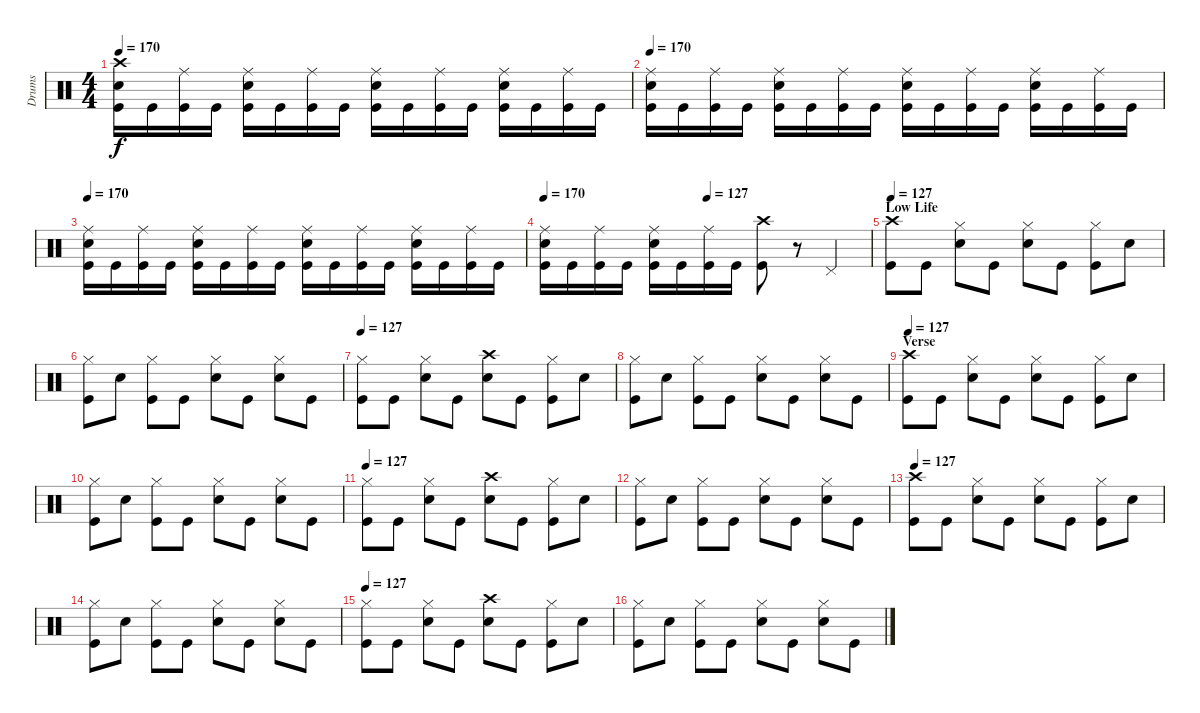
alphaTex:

\track ("Drums" "Drums") {instrument percussion}
\staff {score}
\articulation defaults
\ts (4 4)
\tempo 170
\clef neutral
\ks c
("Crash high (hit)" "Snare (hit) 2" "Kick (hit)").16{dy f} "Kick (hit)".16 ("Ride (middle)" "Kick (hit)").16 "Kick (hit)".16 ("Ride (middle)" "Snare (hit) 2" "Kick (hit)").16 "Kick (hit)".16 ("Ride (middle)" "Kick (hit)").16 "Kick (hit)".16 ("Ride (middle)" "Snare (hit) 2" "Kick (hit)").16 "Kick (hit)".16 ("Ride (middle)" "Kick (hit)").16 "Kick (hit)".16 ("Ride (middle)" "Snare (hit) 2" "Kick (hit)").16 "Kick (hit)".16 ("Ride (middle)" "Kick (hit)").16 "Kick (hit)".16 |
\tempo 170
("Ride (middle)" "Snare (hit) 2" "Kick (hit)").16 "Kick (hit)".16 ("Ride (middle)" "Kick (hit)").16 "Kick (hit)".16 ("Ride (middle)" "Snare (hit) 2" "Kick (hit)").16 "Kick (hit)".16 ("Ride (middle)" "Kick (hit)").16 "Kick (hit)".16 ("Ride (middle)" "Snare (hit) 2" "Kick (hit)").16 "Kick (hit)".16 ("Ride (middle)" "Kick (hit)").16 "Kick (hit)".16 ("Ride (middle)" "Snare (hit) 2" "Kick (hit)").16 "Kick (hit)".16 ("Ride (middle)" "Kick (hit)").16 "Kick (hit)".16 |
\tempo 170
("Ride (middle)" "Snare (hit) 2" "Kick (hit)").16 "Kick (hit)".16 ("Ride (middle)" "Kick (hit)").16 "Kick (hit)".16 ("Ride (middle)" "Snare (hit) 2" "Kick (hit)").16 "Kick (hit)".16 ("Ride (middle)" "Kick (hit)").16 "Kick (hit)".16 ("Ride (middle)" "Snare (hit) 2" "Kick (hit)").16 "Kick (hit)".16 ("Ride (middle)" "Kick (hit)").16 "Kick (hit)".16 ("Ride (middle)" "Snare (hit) 2" "Kick (hit)").16 "Kick (hit)".16 ("Ride (middle)" "Kick (hit)").16 "Kick (hit)".16 |
\tempo 170
\tempo (127 0.5)
("Ride (middle)" "Snare (hit) 2" "Kick (hit)").16 "Kick (hit)".16 ("Ride (middle)" "Kick (hit)").16 "Kick (hit)".16 ("Ride (middle)" "Snare (hit) 2" "Kick (hit)").16 "Kick (hit)".16 ("Ride (middle)" "Kick (hit)").16 "Kick (hit)".16 ("Crash high (hit)" "Kick (hit)").8 r.8 "Pedal Hi-Hat (hit)".4 |
\section ("" "Low Life")
\tempo 127
("Crash high (hit)" "Kick (hit)").8 "Kick (hit)".8 ("Hi-Hat (closed)" "Snare (hit) 2").8 "Kick (hit)".8 ("Hi-Hat (closed)" "Snare (hit) 2").8 "Kick (hit)".8 ("Hi-Hat (closed)" "Kick (hit)").8 "Snare (hit) 2".8 |
("Hi-Hat (closed)" "Kick (hit)").8 "Snare (hit) 2".8 ("Hi-Hat (closed)" "Kick (hit)").8 "Kick (hit)".8 ("Hi-Hat (closed)" "Snare (hit) 2").8 "Kick (hit)".8 ("Hi-Hat (closed)" "Snare (hit) 2").8 "Kick (hit)".8 |
\tempo 127
("Hi-Hat (closed)" "Kick (hit)").8 "Kick (hit)".8 ("Hi-Hat (closed)" "Snare (hit) 2").8 "Kick (hit)".8 ("Crash high (hit)" "Snare (hit) 2").8 "Kick (hit)".8 ("Hi-Hat (closed)" "Kick (hit)").8 "Snare (hit) 2".8 |
("Hi-Hat (closed)" "Kick (hit)").8 "Snare (hit) 2".8 ("Hi-Hat (closed)" "Kick (hit)").8 "Kick (hit)".8 ("Hi-Hat (closed)" "Snare (hit) 2").8 "Kick (hit)".8 ("Hi-Hat (closed)" "Snare (hit) 2").8 "Kick (hit)".8 |
\section ("" "Verse")
\tempo 127
("Crash high (hit)" "Kick (hit)").8 "Kick (hit)".8 ("Hi-Hat (closed)" "Snare (hit) 2").8 "Kick (hit)".8 ("Hi-Hat (closed)" "Snare (hit) 2").8 "Kick (hit)".8 ("Hi-Hat (closed)" "Kick (hit)").8 "Snare (hit) 2".8 |
("Hi-Hat (closed)" "Kick (hit)").8 "Snare (hit) 2".8 ("Hi-Hat (closed)" "Kick (hit)").8 "Kick (hit)".8 ("Hi-Hat (closed)" "Snare (hit) 2").8 "Kick (hit)".8 ("Hi-Hat (closed)" "Snare (hit) 2").8 "Kick (hit)".8 |
\tempo 127
("Hi-Hat (closed)" "Kick (hit)").8 "Kick (hit)".8 ("Hi-Hat (closed)" "Snare (hit) 2").8 "Kick (hit)".8 ("Crash high (hit)" "Snare (hit) 2").8 "Kick (hit)".8 ("Hi-Hat (closed)" "Kick (hit)").8 "Snare (hit) 2".8 |
("Hi-Hat (closed)" "Kick (hit)").8 "Snare (hit) 2".8 ("Hi-Hat (closed)" "Kick (hit)").8 "Kick (hit)".8 ("Hi-Hat (closed)" "Snare (hit) 2").8 "Kick (hit)".8 ("Hi-Hat (closed)" "Snare (hit) 2").8 "Kick (hit)".8 |
\tempo 127
("Crash high (hit)" "Kick (hit)").8 "Kick (hit)".8 ("Hi-Hat (closed)" "Snare (hit) 2").8 "Kick (hit)".8 ("Hi-Hat (closed)" "Snare (hit) 2").8 "Kick (hit)".8 ("Hi-Hat (closed)" "Kick (hit)").8 "Snare (hit) 2".8 |
("Hi-Hat (closed)" "Kick (hit)").8 "Snare (hit) 2".8 ("Hi-Hat (closed)" "Kick (hit)").8 "Kick (hit)".8 ("Hi-Hat (closed)" "Snare (hit) 2").8 "Kick (hit)".8 ("Hi-Hat (closed)" "Snare (hit) 2").8 "Kick (hit)".8 |
\tempo 127
("Hi-Hat (closed)" "Kick (hit)").8 "Kick (hit)".8 ("Hi-Hat (closed)" "Snare (hit) 2").8 "Kick (hit)".8 ("Crash high (hit)" "Snare (hit) 2").8 "Kick (hit)".8 ("Hi-Hat (closed)" "Kick (hit)").8 "Snare (hit) 2".8 |
("Hi-Hat (closed)" "Kick (hit)").8 "Snare (hit) 2".8 ("Hi-Hat (closed)" "Kick (hit)").8 "Kick (hit)".8 ("Hi-Hat (closed)" "Snare (hit) 2").8 "Kick (hit)".8 ("Hi-Hat (closed)" "Snare (hit) 2").8 "Kick (hit)".8
